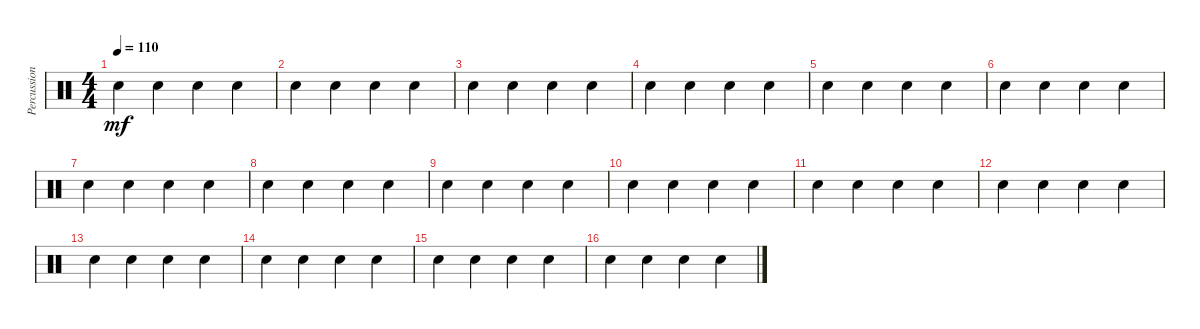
\track ("Percussions" "Percussion") {instrument percussion}
\staff {score}
\articulation defaults
\ts (4 4)
\section ("" "")
\tempo 110
\clef neutral
\ks c "Hand Clap (hit)".4{dy mf} "Hand Clap (hit)".4 "Hand Clap (hit)".4 "Hand Clap (hit)".4
|
"Hand Clap (hit)".4 "Hand Clap (hit)".4 "Hand Clap (hit)".4 "Hand Clap (hit)".4 |
"Hand Clap (hit)".4 "Hand Clap (hit)".4 "Hand Clap (hit)".4 "Hand Clap (hit)".4 |
"Hand Clap (hit)".4 "Hand Clap (hit)".4 "Hand Clap (hit)".4 "Hand Clap (hit)".4 |
"Hand Clap (hit)".4 "Hand Clap (hit)".4 "Hand Clap (hit)".4 "Hand Clap (hit)".4 |
"Hand Clap (hit)".4 "Hand Clap (hit)".4 "Hand Clap (hit)".4 "Hand Clap (hit)".4 |
"Hand Clap (hit)".4 "Hand Clap (hit)".4 "Hand Clap (hit)".4 "Hand Clap (hit)".4 |
"Hand Clap (hit)".4 "Hand Clap (hit)".4 "Hand Clap (hit)".4 "Hand Clap (hit)".4 |
"Hand Clap (hit)".4 "Hand Clap (hit)".4 "Hand Clap (hit)".4 "Hand Clap (hit)".4 |
"Hand Clap (hit)".4 "Hand Clap (hit)".4 "Hand Clap (hit)".4 "Hand Clap (hit)".4 |
"Hand Clap (hit)".4 "Hand Clap (hit)".4 "Hand Clap (hit)".4 "Hand Clap (hit)".4 |
"Hand Clap (hit)".4 "Hand Clap (hit)".4 "Hand Clap (hit)".4 "Hand Clap (hit)".4 |
"Hand Clap (hit)".4 "Hand Clap (hit)".4 "Hand Clap (hit)".4 "Hand Clap (hit)".4 |
"Hand Clap (hit)".4 "Hand Clap (hit)".4 "Hand Clap (hit)".4 "Hand Clap (hit)".4 |
"Hand Clap (hit)".4 "Hand Clap (hit)".4 "Hand Clap (hit)".4 "Hand Clap (hit)".4 |
"Hand Clap (hit)".4 "Hand Clap (hit)".4 "Hand Clap (hit)".4 "Hand Clap (hit)".4
